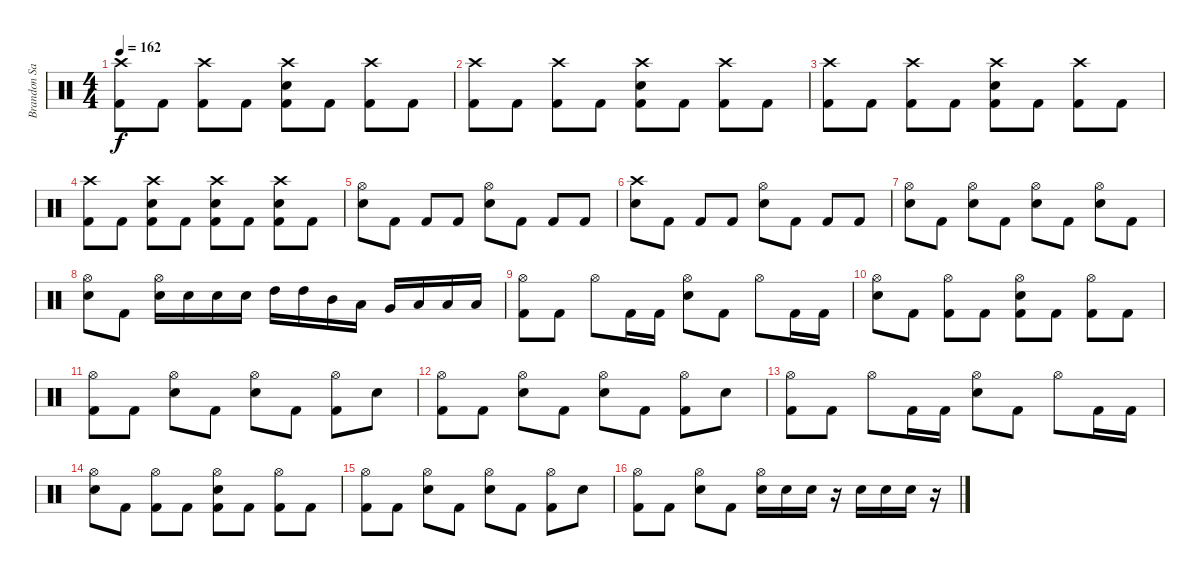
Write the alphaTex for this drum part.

\track ("Brandon Saller" "Brandon Sa") {instrument percussion}
\staff {score}
\articulation defaults
\ts (4 4)
\tempo 162
\clef neutral
\ks c
("Crash high (hit)" "Kick (hit) 2").8{dy f} "Kick (hit) 2".8 ("Crash high (hit)" "Kick (hit) 2").8 "Kick (hit) 2".8 ("Crash high (hit)" "Electric Snare (hit)" "Kick (hit) 2").8 "Kick (hit) 2".8 ("Crash high (hit)" "Kick (hit) 2").8 "Kick (hit) 2".8 |
("Crash high (hit)" "Kick (hit) 2").8 "Kick (hit) 2".8 ("Crash high (hit)" "Kick (hit) 2").8 "Kick (hit) 2".8 ("Crash high (hit)" "Electric Snare (hit)" "Kick (hit) 2").8 "Kick (hit) 2".8 ("Crash high (hit)" "Kick (hit) 2").8 "Kick (hit) 2".8 |
("Crash high (hit)" "Kick (hit) 2").8 "Kick (hit) 2".8 ("Crash high (hit)" "Kick (hit) 2").8 "Kick (hit) 2".8 ("Crash high (hit)" "Electric Snare (hit)" "Kick (hit) 2").8 "Kick (hit) 2".8 ("Crash high (hit)" "Kick (hit) 2").8 "Kick (hit) 2".8 |
("Crash high (hit)" "Kick (hit) 2").8 "Kick (hit) 2".8 ("Crash high (hit)" "Electric Snare (hit)" "Kick (hit) 2").8 "Kick (hit) 2".8 ("Crash high (hit)" "Electric Snare (hit)" "Kick (hit) 2").8 "Kick (hit) 2".8 ("Crash high (hit)" "Electric Snare (hit)" "Kick (hit) 2").8 "Kick (hit) 2".8 |
("Hi-Hat (open)" "Electric Snare (hit)").8 "Kick (hit) 2".8 "Kick (hit) 2".8 "Kick (hit) 2".8 ("Hi-Hat (open)" "Electric Snare (hit)").8 "Kick (hit) 2".8 "Kick (hit) 2".8 "Kick (hit) 2".8 |
("Crash high (hit)" "Electric Snare (hit)").8 "Kick (hit) 2".8 "Kick (hit) 2".8 "Kick (hit) 2".8 ("Hi-Hat (open)" "Electric Snare (hit)").8 "Kick (hit) 2".8 "Kick (hit) 2".8 "Kick (hit) 2".8 |
("Hi-Hat (open)" "Electric Snare (hit)").8 "Kick (hit) 2".8 ("Hi-Hat (open)" "Electric Snare (hit)").8 "Kick (hit) 2".8 ("Hi-Hat (open)" "Electric Snare (hit)").8 "Kick (hit) 2".8 ("Hi-Hat (open)" "Electric Snare (hit)").8 "Kick (hit) 2".8 |
("Hi-Hat (open)" "Electric Snare (hit)").8 "Kick (hit) 2".8 ("Hi-Hat (open)" "Electric Snare (hit)").16 "Electric Snare (hit)".16 "Electric Snare (hit)".16 "Electric Snare (hit)".16 "High Tom (hit)".16 "High Tom (hit)".16 "Mid Tom (hit)".16 "Low Tom (hit)".16 "Very Low Tom (hit)".16 "Low Floor Tom (hit)".16 "Low Floor Tom (hit)".16 "Low Floor Tom (hit)".16 |
("Hi-Hat (open)" "Kick (hit) 2").8 "Kick (hit) 2".8 "Hi-Hat (open)".8 "Kick (hit) 2".16 "Kick (hit) 2".16 ("Hi-Hat (open)" "Electric Snare (hit)").8 "Kick (hit) 2".8 "Hi-Hat (open)".8 "Kick (hit) 2".16 "Kick (hit) 2".16 |
("Hi-Hat (open)" "Electric Snare (hit)").8 "Kick (hit) 2".8 ("Hi-Hat (open)" "Kick (hit) 2").8 "Kick (hit) 2".8 ("Hi-Hat (open)" "Electric Snare (hit)" "Kick (hit) 2").8 "Kick (hit) 2".8 ("Hi-Hat (open)" "Kick (hit) 2").8 "Kick (hit) 2".8 |
("Hi-Hat (open)" "Kick (hit) 2").8 "Kick (hit) 2".8 ("Hi-Hat (open)" "Electric Snare (hit)").8 "Kick (hit) 2".8 ("Hi-Hat (open)" "Electric Snare (hit)").8 "Kick (hit) 2".8 ("Hi-Hat (open)" "Kick (hit) 2").8 "Electric Snare (hit)".8 |
("Hi-Hat (open)" "Kick (hit) 2").8 "Kick (hit) 2".8 ("Hi-Hat (open)" "Electric Snare (hit)").8 "Kick (hit) 2".8 ("Hi-Hat (open)" "Electric Snare (hit)").8 "Kick (hit) 2".8 ("Hi-Hat (open)" "Kick (hit) 2").8 "Electric Snare (hit)".8 |
("Hi-Hat (open)" "Kick (hit) 2").8 "Kick (hit) 2".8 "Hi-Hat (open)".8 "Kick (hit) 2".16 "Kick (hit) 2".16 ("Hi-Hat (open)" "Electric Snare (hit)").8 "Kick (hit) 2".8 "Hi-Hat (open)".8 "Kick (hit) 2".16 "Kick (hit) 2".16 |
("Hi-Hat (open)" "Electric Snare (hit)").8 "Kick (hit) 2".8 ("Hi-Hat (open)" "Kick (hit) 2").8 "Kick (hit) 2".8 ("Hi-Hat (open)" "Electric Snare (hit)" "Kick (hit) 2").8 "Kick (hit) 2".8 ("Hi-Hat (open)" "Kick (hit) 2").8 "Kick (hit) 2".8 |
("Hi-Hat (open)" "Kick (hit) 2").8 "Kick (hit) 2".8 ("Hi-Hat (open)" "Electric Snare (hit)").8 "Kick (hit) 2".8 ("Hi-Hat (open)" "Electric Snare (hit)").8 "Kick (hit) 2".8 ("Hi-Hat (open)" "Kick (hit) 2").8 "Electric Snare (hit)".8 |
("Hi-Hat (open)" "Kick (hit) 2").8 "Kick (hit) 2".8 ("Hi-Hat (open)" "Electric Snare (hit)").8 "Kick (hit) 2".8 ("Hi-Hat (open)" "Electric Snare (hit)").16 "Electric Snare (hit)".16 "Electric Snare (hit)".16 r.16 "Electric Snare (hit)".16 "Electric Snare (hit)".16 "Electric Snare (hit)".16 r.16
